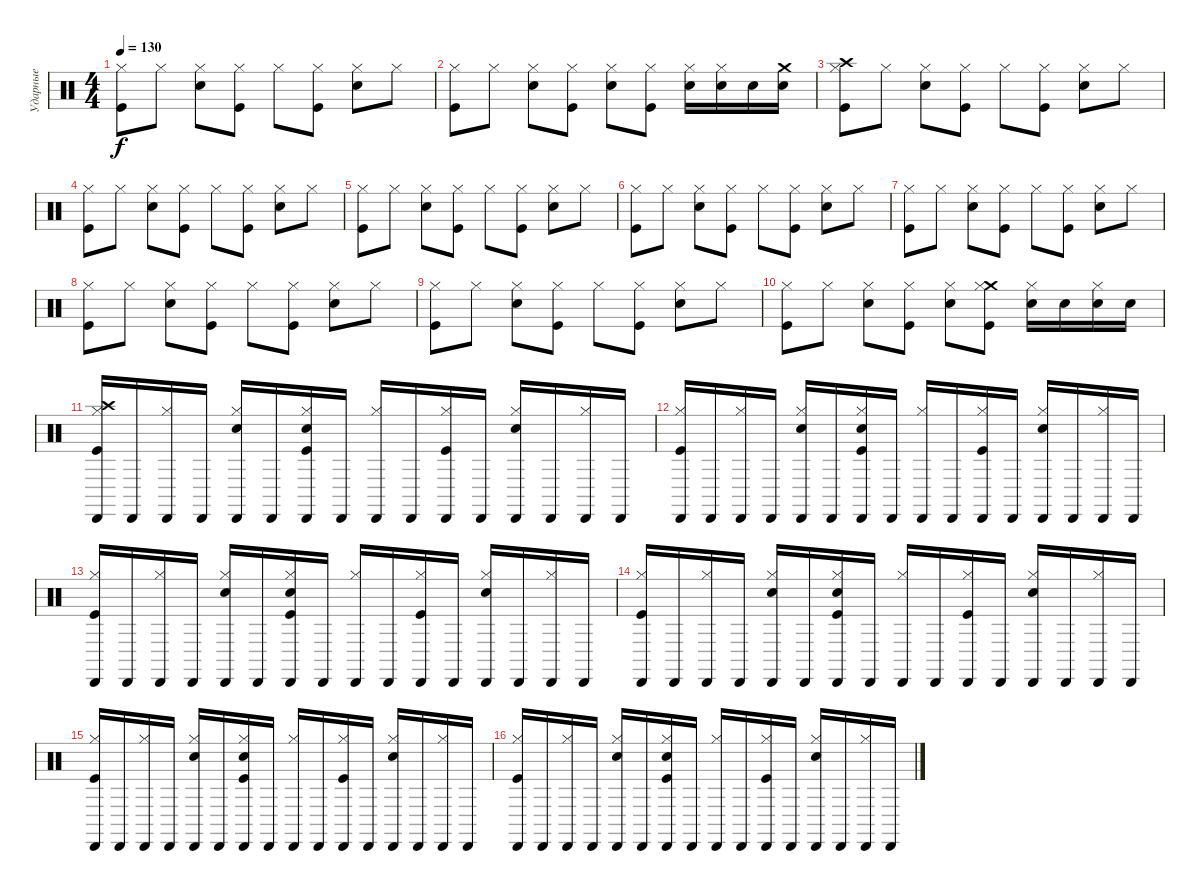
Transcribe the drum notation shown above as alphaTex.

\track ("Ударные" "Ударные") {instrument percussion}
\staff {score}
\articulation defaults
\ts (4 4)
\tempo 130
\clef neutral
\ks c
("Hi-Hat (closed)" "Kick (hit)").8{dy f} "Hi-Hat (closed)".8 ("Hi-Hat (closed)" "Electric Snare (hit)").8 ("Hi-Hat (closed)" "Kick (hit)").8 "Hi-Hat (closed)".8 ("Hi-Hat (closed)" "Kick (hit)").8 ("Hi-Hat (closed)" "Electric Snare (hit)").8 "Hi-Hat (closed)".8 |
("Hi-Hat (closed)" "Kick (hit)").8 "Hi-Hat (closed)".8 ("Hi-Hat (closed)" "Electric Snare (hit)").8 ("Hi-Hat (closed)" "Kick (hit)").8 ("Hi-Hat (closed)" "Electric Snare (hit)").8 ("Hi-Hat (closed)" "Kick (hit)").8 ("Hi-Hat (closed)" "Electric Snare (hit)").16 ("Hi-Hat (closed)" "Electric Snare (hit)").16 "Electric Snare (hit)".16 ("Crash medium (hit)" "Electric Snare (hit)").16 |
("Hi-Hat (closed)" "Crash high (hit)" "Kick (hit)").8 "Hi-Hat (closed)".8 ("Hi-Hat (closed)" "Electric Snare (hit)").8 ("Hi-Hat (closed)" "Kick (hit)").8 "Hi-Hat (closed)".8 ("Hi-Hat (closed)" "Kick (hit)").8 ("Hi-Hat (closed)" "Electric Snare (hit)").8 "Hi-Hat (closed)".8 |
("Hi-Hat (closed)" "Kick (hit)").8 "Hi-Hat (closed)".8 ("Hi-Hat (closed)" "Electric Snare (hit)").8 ("Hi-Hat (closed)" "Kick (hit)").8 "Hi-Hat (closed)".8 ("Hi-Hat (closed)" "Kick (hit)").8 ("Hi-Hat (closed)" "Electric Snare (hit)").8 "Hi-Hat (closed)".8 |
("Hi-Hat (closed)" "Kick (hit)").8 "Hi-Hat (closed)".8 ("Hi-Hat (closed)" "Electric Snare (hit)").8 ("Hi-Hat (closed)" "Kick (hit)").8 "Hi-Hat (closed)".8 ("Hi-Hat (closed)" "Kick (hit)").8 ("Hi-Hat (closed)" "Electric Snare (hit)").8 "Hi-Hat (closed)".8 |
("Hi-Hat (closed)" "Kick (hit)").8 "Hi-Hat (closed)".8 ("Hi-Hat (closed)" "Electric Snare (hit)").8 ("Hi-Hat (closed)" "Kick (hit)").8 "Hi-Hat (closed)".8 ("Hi-Hat (closed)" "Kick (hit)").8 ("Hi-Hat (closed)" "Electric Snare (hit)").8 "Hi-Hat (closed)".8 |
("Hi-Hat (closed)" "Kick (hit)").8 "Hi-Hat (closed)".8 ("Hi-Hat (closed)" "Electric Snare (hit)").8 ("Hi-Hat (closed)" "Kick (hit)").8 "Hi-Hat (closed)".8 ("Hi-Hat (closed)" "Kick (hit)").8 ("Hi-Hat (closed)" "Electric Snare (hit)").8 "Hi-Hat (closed)".8 |
("Hi-Hat (closed)" "Kick (hit)").8 "Hi-Hat (closed)".8 ("Hi-Hat (closed)" "Electric Snare (hit)").8 ("Hi-Hat (closed)" "Kick (hit)").8 "Hi-Hat (closed)".8 ("Hi-Hat (closed)" "Kick (hit)").8 ("Hi-Hat (closed)" "Electric Snare (hit)").8 "Hi-Hat (closed)".8 |
("Hi-Hat (closed)" "Kick (hit)").8 "Hi-Hat (closed)".8 ("Hi-Hat (closed)" "Electric Snare (hit)").8 ("Hi-Hat (closed)" "Kick (hit)").8 "Hi-Hat (closed)".8 ("Hi-Hat (closed)" "Kick (hit)").8 ("Hi-Hat (closed)" "Electric Snare (hit)").8 "Hi-Hat (closed)".8 |
("Hi-Hat (closed)" "Kick (hit)").8 "Hi-Hat (closed)".8 ("Hi-Hat (closed)" "Electric Snare (hit)").8 ("Hi-Hat (closed)" "Kick (hit)").8 ("Hi-Hat (closed)" "Electric Snare (hit)").8 ("Crash medium (hit)" "Hi-Hat (closed)" "Kick (hit)").8 ("Hi-Hat (closed)" "Electric Snare (hit)").16 "Electric Snare (hit)".16 ("Hi-Hat (closed)" "Electric Snare (hit)").16 "Electric Snare (hit)".16 |
("Cabasa (hit)" "Crash high (hit)" "Hi-Hat (closed)" "Kick (hit)").16 "Cabasa (hit)".16 ("Cabasa (hit)" "Hi-Hat (closed)").16 "Cabasa (hit)".16 ("Cabasa (hit)" "Hi-Hat (closed)" "Electric Snare (hit)").16 "Cabasa (hit)".16 ("Cabasa (hit)" "Hi-Hat (closed)" "Kick (hit)" "Electric Snare (hit)").16 "Cabasa (hit)".16 ("Cabasa (hit)" "Hi-Hat (closed)").16 "Cabasa (hit)".16 ("Cabasa (hit)" "Hi-Hat (closed)" "Kick (hit)").16 "Cabasa (hit)".16 ("Cabasa (hit)" "Hi-Hat (closed)" "Electric Snare (hit)").16 "Cabasa (hit)".16 ("Cabasa (hit)" "Hi-Hat (closed)").16 "Cabasa (hit)".16 |
("Cabasa (hit)" "Hi-Hat (closed)" "Kick (hit)").16 "Cabasa (hit)".16 ("Cabasa (hit)" "Hi-Hat (closed)").16 "Cabasa (hit)".16 ("Cabasa (hit)" "Hi-Hat (closed)" "Electric Snare (hit)").16 "Cabasa (hit)".16 ("Cabasa (hit)" "Hi-Hat (closed)" "Electric Snare (hit)" "Kick (hit)").16 "Cabasa (hit)".16 ("Cabasa (hit)" "Hi-Hat (closed)").16 "Cabasa (hit)".16 ("Cabasa (hit)" "Hi-Hat (closed)" "Kick (hit)").16 "Cabasa (hit)".16 ("Cabasa (hit)" "Hi-Hat (closed)" "Electric Snare (hit)").16 "Cabasa (hit)".16 ("Cabasa (hit)" "Hi-Hat (closed)").16 "Cabasa (hit)".16 |
("Cabasa (hit)" "Hi-Hat (closed)" "Kick (hit)").16 "Cabasa (hit)".16 ("Cabasa (hit)" "Hi-Hat (closed)").16 "Cabasa (hit)".16 ("Cabasa (hit)" "Hi-Hat (closed)" "Electric Snare (hit)").16 "Cabasa (hit)".16 ("Cabasa (hit)" "Hi-Hat (closed)" "Electric Snare (hit)" "Kick (hit)").16 "Cabasa (hit)".16 ("Cabasa (hit)" "Hi-Hat (closed)").16 "Cabasa (hit)".16 ("Cabasa (hit)" "Hi-Hat (closed)" "Kick (hit)").16 "Cabasa (hit)".16 ("Cabasa (hit)" "Hi-Hat (closed)" "Electric Snare (hit)").16 "Cabasa (hit)".16 ("Cabasa (hit)" "Hi-Hat (closed)").16 "Cabasa (hit)".16 |
("Cabasa (hit)" "Hi-Hat (closed)" "Kick (hit)").16 "Cabasa (hit)".16 ("Cabasa (hit)" "Hi-Hat (closed)").16 "Cabasa (hit)".16 ("Cabasa (hit)" "Hi-Hat (closed)" "Electric Snare (hit)").16 "Cabasa (hit)".16 ("Cabasa (hit)" "Hi-Hat (closed)" "Electric Snare (hit)" "Kick (hit)").16 "Cabasa (hit)".16 ("Cabasa (hit)" "Hi-Hat (closed)").16 "Cabasa (hit)".16 ("Cabasa (hit)" "Hi-Hat (closed)" "Kick (hit)").16 "Cabasa (hit)".16 ("Cabasa (hit)" "Hi-Hat (closed)" "Electric Snare (hit)").16 "Cabasa (hit)".16 ("Cabasa (hit)" "Hi-Hat (closed)").16 "Cabasa (hit)".16 |
("Cabasa (hit)" "Hi-Hat (closed)" "Kick (hit)").16 "Cabasa (hit)".16 ("Cabasa (hit)" "Hi-Hat (closed)").16 "Cabasa (hit)".16 ("Cabasa (hit)" "Hi-Hat (closed)" "Electric Snare (hit)").16 "Cabasa (hit)".16 ("Cabasa (hit)" "Hi-Hat (closed)" "Electric Snare (hit)" "Kick (hit)").16 "Cabasa (hit)".16 ("Cabasa (hit)" "Hi-Hat (closed)").16 "Cabasa (hit)".16 ("Cabasa (hit)" "Hi-Hat (closed)" "Kick (hit)").16 "Cabasa (hit)".16 ("Cabasa (hit)" "Hi-Hat (closed)" "Electric Snare (hit)").16 "Cabasa (hit)".16 ("Cabasa (hit)" "Hi-Hat (closed)").16 "Cabasa (hit)".16 |
("Cabasa (hit)" "Hi-Hat (closed)" "Kick (hit)").16 "Cabasa (hit)".16 ("Cabasa (hit)" "Hi-Hat (closed)").16 "Cabasa (hit)".16 ("Cabasa (hit)" "Hi-Hat (closed)" "Electric Snare (hit)").16 "Cabasa (hit)".16 ("Cabasa (hit)" "Hi-Hat (closed)" "Electric Snare (hit)" "Kick (hit)").16 "Cabasa (hit)".16 ("Cabasa (hit)" "Hi-Hat (closed)").16 "Cabasa (hit)".16 ("Cabasa (hit)" "Hi-Hat (closed)" "Kick (hit)").16 "Cabasa (hit)".16 ("Cabasa (hit)" "Hi-Hat (closed)" "Electric Snare (hit)").16 "Cabasa (hit)".16 ("Cabasa (hit)" "Hi-Hat (closed)").16 "Cabasa (hit)".16
